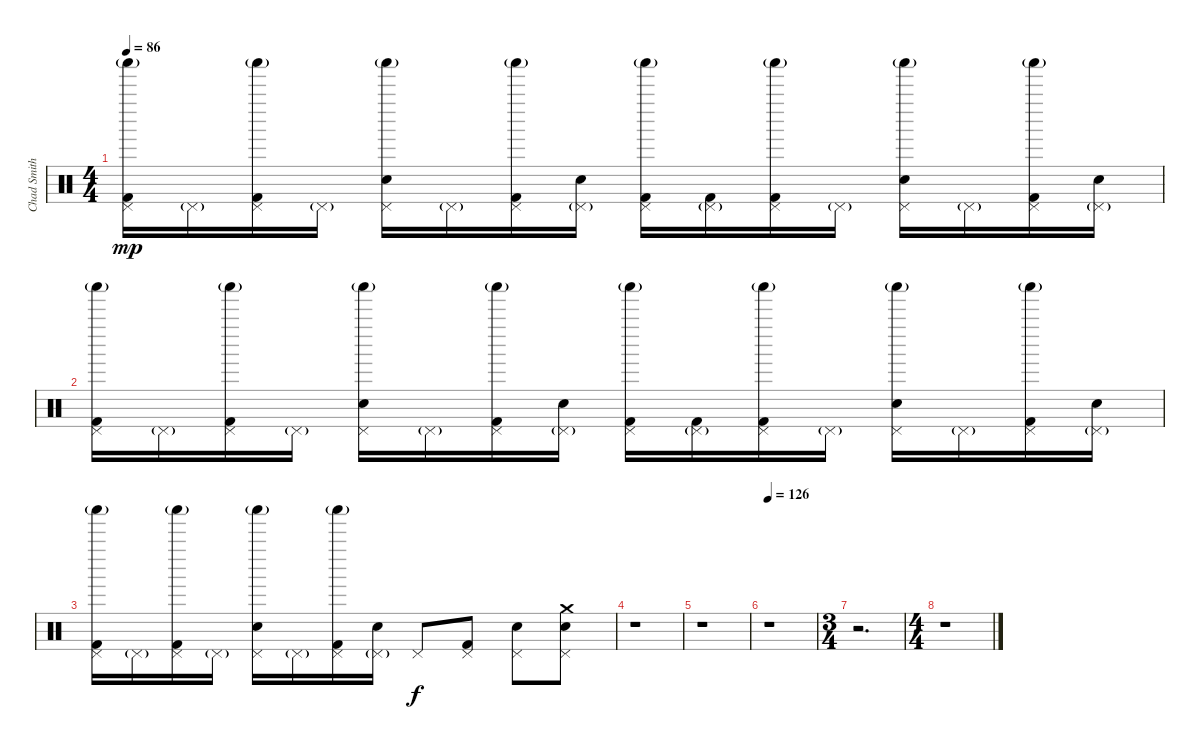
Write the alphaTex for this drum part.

\track ("Chad Smith (Percussions)" "Chad Smith") {instrument percussion}
\staff {score}
\articulation defaults
\ts (4 4)
\tempo 86
\clef neutral
\ks c
("Pedal Hi-Hat (hit)" "Kick (hit) 2" "Shaker (hit)"{g}).16{dy mp} "Pedal Hi-Hat (hit)"{g}.16 ("Pedal Hi-Hat (hit)" "Kick (hit) 2" "Shaker (hit)"{g}).16 "Pedal Hi-Hat (hit)"{g}.16 ("Pedal Hi-Hat (hit)" "Electric Snare (hit)" "Shaker (hit)"{g}).16 "Pedal Hi-Hat (hit)"{g}.16 ("Pedal Hi-Hat (hit)" "Kick (hit) 2" "Shaker (hit)"{g}).16 ("Electric Snare (hit)" "Pedal Hi-Hat (hit)"{g}).16 ("Pedal Hi-Hat (hit)" "Kick (hit) 2" "Shaker (hit)"{g}).16 ("Kick (hit) 2" "Pedal Hi-Hat (hit)"{g}).16 ("Pedal Hi-Hat (hit)" "Kick (hit) 2" "Shaker (hit)"{g}).16 "Pedal Hi-Hat (hit)"{g}.16 ("Pedal Hi-Hat (hit)" "Electric Snare (hit)" "Shaker (hit)"{g}).16 "Pedal Hi-Hat (hit)"{g}.16 ("Pedal Hi-Hat (hit)" "Kick (hit) 2" "Shaker (hit)"{g}).16 ("Electric Snare (hit)" "Pedal Hi-Hat (hit)"{g}).16 |
("Pedal Hi-Hat (hit)" "Kick (hit) 2" "Shaker (hit)"{g}).16 "Pedal Hi-Hat (hit)"{g}.16 ("Pedal Hi-Hat (hit)" "Kick (hit) 2" "Shaker (hit)"{g}).16 "Pedal Hi-Hat (hit)"{g}.16 ("Pedal Hi-Hat (hit)" "Electric Snare (hit)" "Shaker (hit)"{g}).16 "Pedal Hi-Hat (hit)"{g}.16 ("Pedal Hi-Hat (hit)" "Kick (hit) 2" "Shaker (hit)"{g}).16 ("Electric Snare (hit)" "Pedal Hi-Hat (hit)"{g}).16 ("Pedal Hi-Hat (hit)" "Kick (hit) 2" "Shaker (hit)"{g}).16 ("Kick (hit) 2" "Pedal Hi-Hat (hit)"{g}).16 ("Pedal Hi-Hat (hit)" "Kick (hit) 2" "Shaker (hit)"{g}).16 "Pedal Hi-Hat (hit)"{g}.16 ("Pedal Hi-Hat (hit)" "Electric Snare (hit)" "Shaker (hit)"{g}).16 "Pedal Hi-Hat (hit)"{g}.16 ("Pedal Hi-Hat (hit)" "Kick (hit) 2" "Shaker (hit)"{g}).16 ("Electric Snare (hit)" "Pedal Hi-Hat (hit)"{g}).16 |
("Pedal Hi-Hat (hit)" "Kick (hit) 2" "Shaker (hit)"{g}).16 "Pedal Hi-Hat (hit)"{g}.16 ("Pedal Hi-Hat (hit)" "Kick (hit) 2" "Shaker (hit)"{g}).16 "Pedal Hi-Hat (hit)"{g}.16 ("Pedal Hi-Hat (hit)" "Electric Snare (hit)" "Shaker (hit)"{g}).16 "Pedal Hi-Hat (hit)"{g}.16 ("Pedal Hi-Hat (hit)" "Kick (hit) 2" "Shaker (hit)"{g}).16 ("Electric Snare (hit)" "Pedal Hi-Hat (hit)"{g}).16 "Pedal Hi-Hat (hit)".8{dy f} ("Pedal Hi-Hat (hit)" "Kick (hit) 2").8 ("Pedal Hi-Hat (hit)" "Electric Snare (hit)").8 ("Crash medium (hit)" "Pedal Hi-Hat (hit)" "Electric Snare (hit)").8 |
r.1 |
r.1 |
\tempo 126
r.1 |
\ts (3 4)
r.2{d} |
\ts (4 4)
r.1
